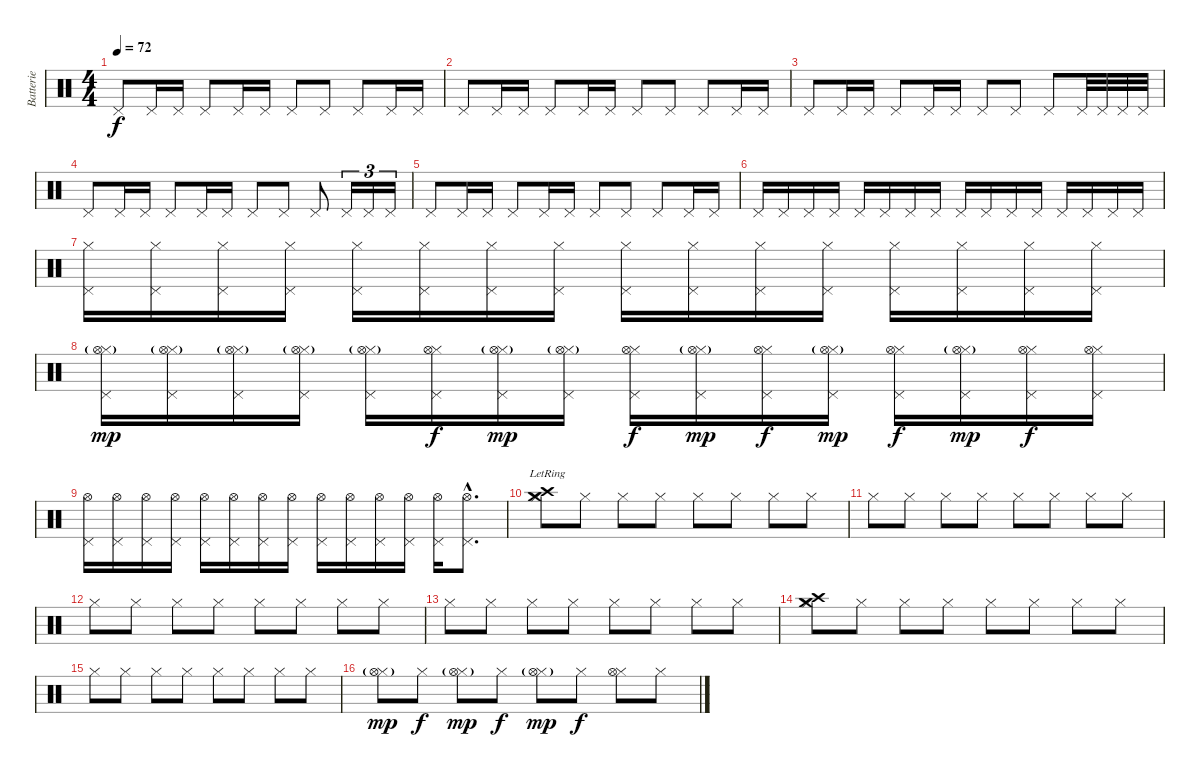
\track ("Batterie" "Batterie") {instrument percussion}
\staff {score}
\articulation defaults
\ts (4 4)
\tempo 72
\clef neutral
\ks c "Pedal Hi-Hat (hit)".8{dy f} "Pedal Hi-Hat (hit)".16 "Pedal Hi-Hat (hit)".16 "Pedal Hi-Hat (hit)".8 "Pedal Hi-Hat (hit)".16 "Pedal Hi-Hat (hit)".16 "Pedal Hi-Hat (hit)".8 "Pedal Hi-Hat (hit)".8 "Pedal Hi-Hat (hit)".8 "Pedal Hi-Hat (hit)".16 "Pedal Hi-Hat (hit)".16
|
"Pedal Hi-Hat (hit)".8 "Pedal Hi-Hat (hit)".16 "Pedal Hi-Hat (hit)".16 "Pedal Hi-Hat (hit)".8 "Pedal Hi-Hat (hit)".16 "Pedal Hi-Hat (hit)".16 "Pedal Hi-Hat (hit)".8 "Pedal Hi-Hat (hit)".8 "Pedal Hi-Hat (hit)".8 "Pedal Hi-Hat (hit)".16 "Pedal Hi-Hat (hit)".16 |
"Pedal Hi-Hat (hit)".8 "Pedal Hi-Hat (hit)".16 "Pedal Hi-Hat (hit)".16 "Pedal Hi-Hat (hit)".8 "Pedal Hi-Hat (hit)".16 "Pedal Hi-Hat (hit)".16 "Pedal Hi-Hat (hit)".8 "Pedal Hi-Hat (hit)".8 "Pedal Hi-Hat (hit)".8 "Pedal Hi-Hat (hit)".32 "Pedal Hi-Hat (hit)".32 "Pedal Hi-Hat (hit)".32 "Pedal Hi-Hat (hit)".32 |
"Pedal Hi-Hat (hit)".8 "Pedal Hi-Hat (hit)".16 "Pedal Hi-Hat (hit)".16 "Pedal Hi-Hat (hit)".8 "Pedal Hi-Hat (hit)".16 "Pedal Hi-Hat (hit)".16 "Pedal Hi-Hat (hit)".8 "Pedal Hi-Hat (hit)".8 "Pedal Hi-Hat (hit)".8 "Pedal Hi-Hat (hit)".16{tu (3 2)} "Pedal Hi-Hat (hit)".16{tu (3 2)} "Pedal Hi-Hat (hit)".16{tu (3 2)} |
"Pedal Hi-Hat (hit)".8 "Pedal Hi-Hat (hit)".16 "Pedal Hi-Hat (hit)".16 "Pedal Hi-Hat (hit)".8 "Pedal Hi-Hat (hit)".16 "Pedal Hi-Hat (hit)".16 "Pedal Hi-Hat (hit)".8 "Pedal Hi-Hat (hit)".8 "Pedal Hi-Hat (hit)".8 "Pedal Hi-Hat (hit)".16 "Pedal Hi-Hat (hit)".16 |
"Pedal Hi-Hat (hit)".16 "Pedal Hi-Hat (hit)".16 "Pedal Hi-Hat (hit)".16 "Pedal Hi-Hat (hit)".16 "Pedal Hi-Hat (hit)".16 "Pedal Hi-Hat (hit)".16 "Pedal Hi-Hat (hit)".16 "Pedal Hi-Hat (hit)".16 "Pedal Hi-Hat (hit)".16 "Pedal Hi-Hat (hit)".16 "Pedal Hi-Hat (hit)".16 "Pedal Hi-Hat (hit)".16 "Pedal Hi-Hat (hit)".16 "Pedal Hi-Hat (hit)".16 "Pedal Hi-Hat (hit)".16 "Pedal Hi-Hat (hit)".16 |
("Pedal Hi-Hat (hit)" "Hi-Hat (closed)").16 ("Pedal Hi-Hat (hit)" "Hi-Hat (closed)").16 ("Pedal Hi-Hat (hit)" "Hi-Hat (closed)").16 ("Pedal Hi-Hat (hit)" "Hi-Hat (closed)").16 ("Pedal Hi-Hat (hit)" "Hi-Hat (closed)").16 ("Pedal Hi-Hat (hit)" "Hi-Hat (closed)").16 ("Pedal Hi-Hat (hit)" "Hi-Hat (closed)").16 ("Pedal Hi-Hat (hit)" "Hi-Hat (closed)").16 ("Pedal Hi-Hat (hit)" "Hi-Hat (closed)").16 ("Pedal Hi-Hat (hit)" "Hi-Hat (closed)").16 ("Pedal Hi-Hat (hit)" "Hi-Hat (closed)").16 ("Pedal Hi-Hat (hit)" "Hi-Hat (closed)").16 ("Pedal Hi-Hat (hit)" "Hi-Hat (closed)").16 ("Pedal Hi-Hat (hit)" "Hi-Hat (closed)").16 ("Pedal Hi-Hat (hit)" "Hi-Hat (closed)").16 ("Pedal Hi-Hat (hit)" "Hi-Hat (closed)").16 |
("Pedal Hi-Hat (hit)" "Hi-Hat (closed)" "Hi-Hat (open)"{g}).16{dy mp} ("Pedal Hi-Hat (hit)" "Hi-Hat (closed)" "Hi-Hat (open)"{g}).16 ("Pedal Hi-Hat (hit)" "Hi-Hat (closed)" "Hi-Hat (open)"{g}).16 ("Pedal Hi-Hat (hit)" "Hi-Hat (closed)" "Hi-Hat (open)"{g}).16 ("Pedal Hi-Hat (hit)" "Hi-Hat (closed)" "Hi-Hat (open)"{g}).16 ("Pedal Hi-Hat (hit)" "Hi-Hat (closed)" "Hi-Hat (open)").16{dy f} ("Pedal Hi-Hat (hit)" "Hi-Hat (closed)" "Hi-Hat (open)"{g}).16{dy mp} ("Pedal Hi-Hat (hit)" "Hi-Hat (closed)" "Hi-Hat (open)"{g}).16 ("Pedal Hi-Hat (hit)" "Hi-Hat (closed)" "Hi-Hat (open)").16{dy f} ("Pedal Hi-Hat (hit)" "Hi-Hat (closed)" "Hi-Hat (open)"{g}).16{dy mp} ("Pedal Hi-Hat (hit)" "Hi-Hat (closed)" "Hi-Hat (open)").16{dy f} ("Pedal Hi-Hat (hit)" "Hi-Hat (closed)" "Hi-Hat (open)"{g}).16{dy mp} ("Pedal Hi-Hat (hit)" "Hi-Hat (closed)" "Hi-Hat (open)").16{dy f} ("Pedal Hi-Hat (hit)" "Hi-Hat (closed)" "Hi-Hat (open)"{g}).16{dy mp} ("Pedal Hi-Hat (hit)" "Hi-Hat (closed)" "Hi-Hat (open)").16{dy f} ("Pedal Hi-Hat (hit)" "Hi-Hat (closed)" "Hi-Hat (open)").16 |
("Pedal Hi-Hat (hit)" "Hi-Hat (open)").16 ("Pedal Hi-Hat (hit)" "Hi-Hat (open)").16 ("Pedal Hi-Hat (hit)" "Hi-Hat (open)").16 ("Pedal Hi-Hat (hit)" "Hi-Hat (open)").16 ("Pedal Hi-Hat (hit)" "Hi-Hat (open)").16 ("Pedal Hi-Hat (hit)" "Hi-Hat (open)").16 ("Pedal Hi-Hat (hit)" "Hi-Hat (open)").16 ("Pedal Hi-Hat (hit)" "Hi-Hat (open)").16 ("Pedal Hi-Hat (hit)" "Hi-Hat (open)").16 ("Pedal Hi-Hat (hit)" "Hi-Hat (open)").16 ("Pedal Hi-Hat (hit)" "Hi-Hat (open)").16 ("Pedal Hi-Hat (hit)" "Hi-Hat (open)").16 ("Pedal Hi-Hat (hit)" "Hi-Hat (open)").16 ("Pedal Hi-Hat (hit)"{hac} "Hi-Hat (open)"{hac}).8{d} |
("Crash high (hit)"{lr} "Hi-Hat (closed)" "Crash medium (hit)").8 "Hi-Hat (closed)".8 "Hi-Hat (closed)".8 "Hi-Hat (closed)".8 "Hi-Hat (closed)".8 "Hi-Hat (closed)".8 "Hi-Hat (closed)".8 "Hi-Hat (closed)".8 |
"Hi-Hat (closed)".8 "Hi-Hat (closed)".8 "Hi-Hat (closed)".8 "Hi-Hat (closed)".8 "Hi-Hat (closed)".8 "Hi-Hat (closed)".8 "Hi-Hat (closed)".8 "Hi-Hat (closed)".8 |
"Hi-Hat (closed)".8 "Hi-Hat (closed)".8 "Hi-Hat (closed)".8 "Hi-Hat (closed)".8 "Hi-Hat (closed)".8 "Hi-Hat (closed)".8 "Hi-Hat (closed)".8 "Hi-Hat (closed)".8 |
"Hi-Hat (closed)".8 "Hi-Hat (closed)".8 "Hi-Hat (closed)".8 "Hi-Hat (closed)".8 "Hi-Hat (closed)".8 "Hi-Hat (closed)".8 "Hi-Hat (closed)".8 "Hi-Hat (closed)".8 |
("Crash high (hit)" "Hi-Hat (closed)" "Crash medium (hit)").8 "Hi-Hat (closed)".8 "Hi-Hat (closed)".8 "Hi-Hat (closed)".8 "Hi-Hat (closed)".8 "Hi-Hat (closed)".8 "Hi-Hat (closed)".8 "Hi-Hat (closed)".8 |
"Hi-Hat (closed)".8 "Hi-Hat (closed)".8 "Hi-Hat (closed)".8 "Hi-Hat (closed)".8 "Hi-Hat (closed)".8 "Hi-Hat (closed)".8 "Hi-Hat (closed)".8 "Hi-Hat (closed)".8 |
("Hi-Hat (closed)" "Hi-Hat (open)"{g}).8{dy mp} "Hi-Hat (closed)".8{dy f} ("Hi-Hat (closed)" "Hi-Hat (open)"{g}).8{dy mp} "Hi-Hat (closed)".8{dy f} ("Hi-Hat (closed)" "Hi-Hat (open)"{g}).8{dy mp} "Hi-Hat (closed)".8{dy f} ("Hi-Hat (closed)" "Hi-Hat (open)").8 "Hi-Hat (closed)".8
